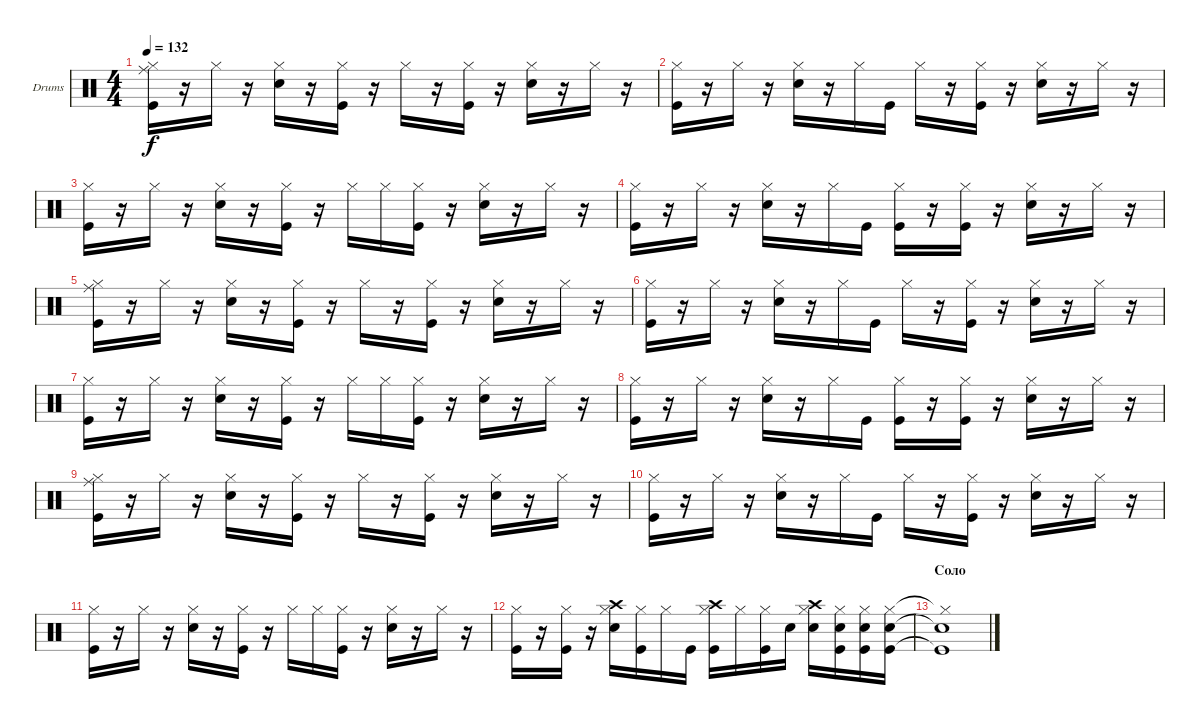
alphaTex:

\defaultSystemsLayout 4
\bracketExtendMode groupsimilarinstruments
\firstSystemTrackNameOrientation horizontal
\otherSystemsTrackNameOrientation horizontal
\track ("Drumkit" "Drums") {instrument percussion}
\staff {score}
\articulation defaults
\ts (4 4)
\tempo 132
\clef neutral
\ks c
("Kick (hit)" "Ride (middle)" "Hi-Hat (closed)").16{dy f} r.16 "Hi-Hat (closed)".16 r.16 ("Snare (hit) 2" "Hi-Hat (closed)").16 r.16 ("Kick (hit)" "Hi-Hat (closed)").16 r.16 "Hi-Hat (closed)".16 r.16 ("Kick (hit)" "Hi-Hat (closed)").16 r.16 ("Snare (hit) 2" "Hi-Hat (closed)").16 r.16 "Hi-Hat (closed)".16 r.16 |
("Kick (hit)" "Hi-Hat (closed)").16 r.16 "Hi-Hat (closed)".16 r.16 ("Snare (hit) 2" "Hi-Hat (closed)").16 r.16 "Hi-Hat (closed)".16 "Kick (hit)".16 "Hi-Hat (closed)".16 r.16 ("Kick (hit)" "Hi-Hat (closed)").16 r.16 ("Snare (hit) 2" "Hi-Hat (closed)").16 r.16 "Hi-Hat (closed)".16 r.16 |
("Kick (hit)" "Hi-Hat (closed)").16 r.16 "Hi-Hat (closed)".16 r.16 ("Snare (hit) 2" "Hi-Hat (closed)").16 r.16 ("Kick (hit)" "Hi-Hat (closed)").16 r.16 "Hi-Hat (closed)".16 "Hi-Hat (closed)".16 ("Kick (hit)" "Hi-Hat (closed)").16 r.16 ("Snare (hit) 2" "Hi-Hat (closed)").16 r.16 "Hi-Hat (closed)".16 r.16 |
("Kick (hit)" "Hi-Hat (closed)").16 r.16 "Hi-Hat (closed)".16 r.16 ("Snare (hit) 2" "Hi-Hat (closed)").16 r.16 "Hi-Hat (closed)".16 "Kick (hit)".16 ("Kick (hit)" "Hi-Hat (closed)").16 r.16 ("Kick (hit)" "Hi-Hat (closed)").16 r.16 ("Snare (hit) 2" "Hi-Hat (closed)").16 r.16 "Hi-Hat (closed)".16 r.16 |
("Kick (hit)" "Ride (middle)" "Hi-Hat (closed)").16 r.16 "Hi-Hat (closed)".16 r.16 ("Snare (hit) 2" "Hi-Hat (closed)").16 r.16 ("Kick (hit)" "Hi-Hat (closed)").16 r.16 "Hi-Hat (closed)".16 r.16 ("Kick (hit)" "Hi-Hat (closed)").16 r.16 ("Snare (hit) 2" "Hi-Hat (closed)").16 r.16 "Hi-Hat (closed)".16 r.16 |
("Kick (hit)" "Hi-Hat (closed)").16 r.16 "Hi-Hat (closed)".16 r.16 ("Snare (hit) 2" "Hi-Hat (closed)").16 r.16 "Hi-Hat (closed)".16 "Kick (hit)".16 "Hi-Hat (closed)".16 r.16 ("Kick (hit)" "Hi-Hat (closed)").16 r.16 ("Snare (hit) 2" "Hi-Hat (closed)").16 r.16 "Hi-Hat (closed)".16 r.16 |
("Kick (hit)" "Hi-Hat (closed)").16 r.16 "Hi-Hat (closed)".16 r.16 ("Snare (hit) 2" "Hi-Hat (closed)").16 r.16 ("Kick (hit)" "Hi-Hat (closed)").16 r.16 "Hi-Hat (closed)".16 "Hi-Hat (closed)".16 ("Kick (hit)" "Hi-Hat (closed)").16 r.16 ("Snare (hit) 2" "Hi-Hat (closed)").16 r.16 "Hi-Hat (closed)".16 r.16 |
("Kick (hit)" "Hi-Hat (closed)").16 r.16 "Hi-Hat (closed)".16 r.16 ("Snare (hit) 2" "Hi-Hat (closed)").16 r.16 "Hi-Hat (closed)".16 "Kick (hit)".16 ("Kick (hit)" "Hi-Hat (closed)").16 r.16 ("Kick (hit)" "Hi-Hat (closed)").16 r.16 ("Snare (hit) 2" "Hi-Hat (closed)").16 r.16 "Hi-Hat (closed)".16 r.16 |
("Kick (hit)" "Ride (middle)" "Hi-Hat (closed)").16 r.16 "Hi-Hat (closed)".16 r.16 ("Snare (hit) 2" "Hi-Hat (closed)").16 r.16 ("Kick (hit)" "Hi-Hat (closed)").16 r.16 "Hi-Hat (closed)".16 r.16 ("Kick (hit)" "Hi-Hat (closed)").16 r.16 ("Snare (hit) 2" "Hi-Hat (closed)").16 r.16 "Hi-Hat (closed)".16 r.16 |
("Kick (hit)" "Hi-Hat (closed)").16 r.16 "Hi-Hat (closed)".16 r.16 ("Snare (hit) 2" "Hi-Hat (closed)").16 r.16 "Hi-Hat (closed)".16 "Kick (hit)".16 "Hi-Hat (closed)".16 r.16 ("Kick (hit)" "Hi-Hat (closed)").16 r.16 ("Snare (hit) 2" "Hi-Hat (closed)").16 r.16 "Hi-Hat (closed)".16 r.16 |
("Kick (hit)" "Hi-Hat (closed)").16 r.16 "Hi-Hat (closed)".16 r.16 ("Snare (hit) 2" "Hi-Hat (closed)").16 r.16 ("Kick (hit)" "Hi-Hat (closed)").16 r.16 "Hi-Hat (closed)".16 "Hi-Hat (closed)".16 ("Kick (hit)" "Hi-Hat (closed)").16 r.16 ("Snare (hit) 2" "Hi-Hat (closed)").16 r.16 "Hi-Hat (closed)".16 r.16 |
("Kick (hit)" "Hi-Hat (closed)").16 r.16 ("Kick (hit)" "Hi-Hat (closed)").16 r.16 ("Snare (hit) 2" "Crash high (hit)" "Hi-Hat (closed)").16 ("Kick (hit)" "Hi-Hat (closed)").16 "Hi-Hat (closed)".16 "Kick (hit)".16 ("Kick (hit)" "Crash high (hit)" "Hi-Hat (closed)").16 "Hi-Hat (closed)".16 ("Kick (hit)" "Hi-Hat (closed)").16 "Snare (hit) 2".16 ("Snare (hit) 2" "Crash high (hit)" "Hi-Hat (closed)").16 ("Kick (hit)" "Snare (hit) 2" "Hi-Hat (closed)").16 ("Kick (hit)" "Snare (hit) 2" "Hi-Hat (closed)").16 ("Snare (hit) 2" "Kick (hit)" "Hi-Hat (closed)").16 |
\section ("" "Соло")
("Snare (hit) 2"{t} "Kick (hit)"{t} "Hi-Hat (closed)"{t}).1
